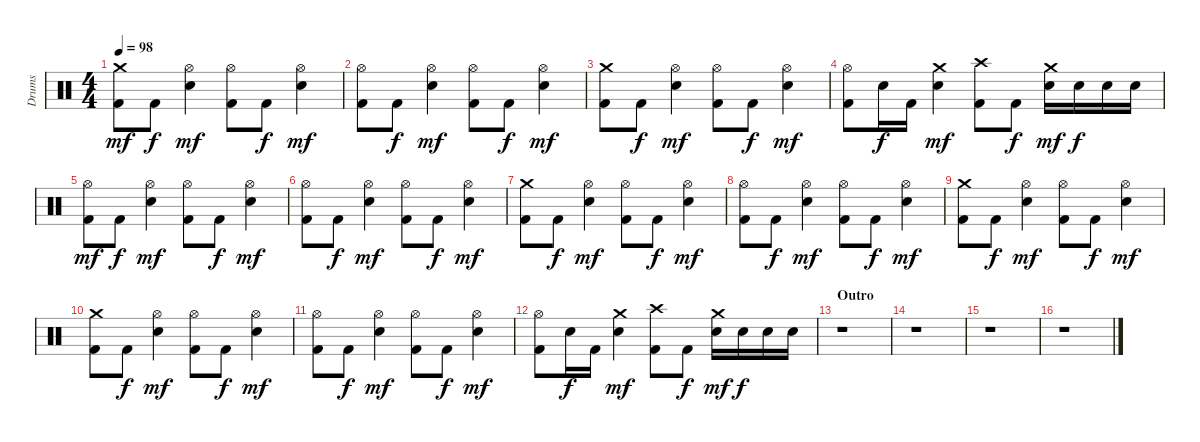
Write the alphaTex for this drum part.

\track ("Drums" "Drums") {instrument percussion}
\staff {score}
\articulation defaults
\ts (4 4)
\tempo 98
\clef neutral
\ks c
("Crash medium (hit)" "Kick (hit) 2").8{dy mf} "Kick (hit) 2".8{dy f} ("Hi-Hat (open)" "Snare (hit) 2").4{dy mf} ("Hi-Hat (open)" "Kick (hit) 2").8 "Kick (hit) 2".8{dy f} ("Hi-Hat (open)" "Snare (hit) 2").4{dy mf} |
("Hi-Hat (open)" "Kick (hit) 2").8 "Kick (hit) 2".8{dy f} ("Hi-Hat (open)" "Snare (hit) 2").4{dy mf} ("Hi-Hat (open)" "Kick (hit) 2").8 "Kick (hit) 2".8{dy f} ("Hi-Hat (open)" "Snare (hit) 2").4{dy mf} |
("Crash medium (hit)" "Kick (hit) 2").8 "Kick (hit) 2".8{dy f} ("Hi-Hat (open)" "Snare (hit) 2").4{dy mf} ("Hi-Hat (open)" "Kick (hit) 2").8 "Kick (hit) 2".8{dy f} ("Hi-Hat (open)" "Snare (hit) 2").4{dy mf} |
("Hi-Hat (open)" "Kick (hit) 2").8 "Snare (hit) 2".16{dy f} "Kick (hit) 2".16 ("Crash medium (hit)" "Snare (hit) 2").4{dy mf} ("Crash high (hit)" "Kick (hit) 2").8 "Kick (hit) 2".8{dy f} ("Crash medium (hit)" "Snare (hit) 2").16{dy mf} "Snare (hit) 2".16{dy f} "Snare (hit) 2".16 "Snare (hit) 2".16 |
("Hi-Hat (open)" "Kick (hit) 2").8{dy mf} "Kick (hit) 2".8{dy f} ("Hi-Hat (open)" "Snare (hit) 2").4{dy mf} ("Hi-Hat (open)" "Kick (hit) 2").8 "Kick (hit) 2".8{dy f} ("Hi-Hat (open)" "Snare (hit) 2").4{dy mf} |
("Hi-Hat (open)" "Kick (hit) 2").8 "Kick (hit) 2".8{dy f} ("Hi-Hat (open)" "Snare (hit) 2").4{dy mf} ("Hi-Hat (open)" "Kick (hit) 2").8 "Kick (hit) 2".8{dy f} ("Hi-Hat (open)" "Snare (hit) 2").4{dy mf} |
("Crash medium (hit)" "Kick (hit) 2").8 "Kick (hit) 2".8{dy f} ("Hi-Hat (open)" "Snare (hit) 2").4{dy mf} ("Hi-Hat (open)" "Kick (hit) 2").8 "Kick (hit) 2".8{dy f} ("Hi-Hat (open)" "Snare (hit) 2").4{dy mf} |
("Hi-Hat (open)" "Kick (hit) 2").8 "Kick (hit) 2".8{dy f} ("Hi-Hat (open)" "Snare (hit) 2").4{dy mf} ("Hi-Hat (open)" "Kick (hit) 2").8 "Kick (hit) 2".8{dy f} ("Hi-Hat (open)" "Snare (hit) 2").4{dy mf} |
("Crash medium (hit)" "Kick (hit) 2").8 "Kick (hit) 2".8{dy f} ("Hi-Hat (open)" "Snare (hit) 2").4{dy mf} ("Hi-Hat (open)" "Kick (hit) 2").8 "Kick (hit) 2".8{dy f} ("Hi-Hat (open)" "Snare (hit) 2").4{dy mf} |
("Crash medium (hit)" "Kick (hit) 2").8 "Kick (hit) 2".8{dy f} ("Hi-Hat (open)" "Snare (hit) 2").4{dy mf} ("Hi-Hat (open)" "Kick (hit) 2").8 "Kick (hit) 2".8{dy f} ("Hi-Hat (open)" "Snare (hit) 2").4{dy mf} |
("Hi-Hat (open)" "Kick (hit) 2").8 "Kick (hit) 2".8{dy f} ("Hi-Hat (open)" "Snare (hit) 2").4{dy mf} ("Hi-Hat (open)" "Kick (hit) 2").8 "Kick (hit) 2".8{dy f} ("Hi-Hat (open)" "Snare (hit) 2").4{dy mf} |
("Hi-Hat (open)" "Kick (hit) 2").8 "Snare (hit) 2".16{dy f} "Kick (hit) 2".16 ("Crash medium (hit)" "Snare (hit) 2").4{dy mf} ("Crash high (hit)" "Kick (hit) 2").8 "Kick (hit) 2".8{dy f} ("Crash medium (hit)" "Snare (hit) 2").16{dy mf} "Snare (hit) 2".16{dy f} "Snare (hit) 2".16 "Snare (hit) 2".16 |
\section ("" "Outro")
r.1 |
r.1 |
r.1 |
r.1
